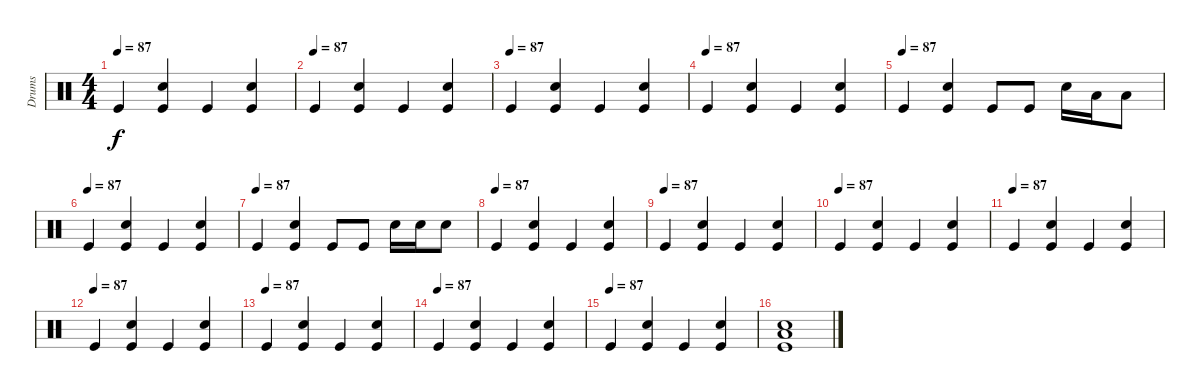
\track ("Drums" "Drums") {instrument percussion}
\staff {score}
\articulation defaults
\ts (4 4)
\tempo 87
\clef neutral
\ks c "Kick (hit)".4{dy f}
("Snare (hit) 2" "Kick (hit)").4 "Kick (hit)".4 ("Snare (hit) 2" "Kick (hit)").4 |
\tempo (87)
"Kick (hit)".4 ("Snare (hit) 2" "Kick (hit)").4 "Kick (hit)".4 ("Snare (hit) 2" "Kick (hit)").4 |
\tempo (87)
"Kick (hit)".4 ("Snare (hit) 2" "Kick (hit)").4 "Kick (hit)".4 ("Snare (hit) 2" "Kick (hit)").4 |
\tempo (87)
"Kick (hit)".4 ("Snare (hit) 2" "Kick (hit)").4 "Kick (hit)".4 ("Snare (hit) 2" "Kick (hit)").4 |
\tempo (87)
"Kick (hit)".4 ("Snare (hit) 2" "Kick (hit)").4 "Kick (hit)".8 "Kick (hit)".8 "Snare (hit) 2".16 "Low Tom (hit)".16 "Low Floor Tom (hit)".8 |
\tempo (87)
"Kick (hit)".4 ("Snare (hit) 2" "Kick (hit)").4 "Kick (hit)".4 ("Snare (hit) 2" "Kick (hit)").4 |
\tempo (87)
"Kick (hit)".4 ("Snare (hit) 2" "Kick (hit)").4 "Kick (hit)".8 "Kick (hit)".8 "Snare (hit) 2".16 "Snare (hit) 2".16 "Snare (hit) 2".8 |
\tempo (87)
"Kick (hit)".4 ("Snare (hit) 2" "Kick (hit)").4 "Kick (hit)".4 ("Snare (hit) 2" "Kick (hit)").4 |
\tempo (87)
"Kick (hit)".4 ("Snare (hit) 2" "Kick (hit)").4 "Kick (hit)".4 ("Snare (hit) 2" "Kick (hit)").4 |
\tempo (87)
"Kick (hit)".4 ("Snare (hit) 2" "Kick (hit)").4 "Kick (hit)".4 ("Snare (hit) 2" "Kick (hit)").4 |
\tempo (87)
"Kick (hit)".4 ("Snare (hit) 2" "Kick (hit)").4 "Kick (hit)".4 ("Snare (hit) 2" "Kick (hit)").4 |
\tempo (87)
"Kick (hit)".4 ("Snare (hit) 2" "Kick (hit)").4 "Kick (hit)".4 ("Snare (hit) 2" "Kick (hit)").4 |
\tempo (87)
"Kick (hit)".4 ("Snare (hit) 2" "Kick (hit)").4 "Kick (hit)".4 ("Snare (hit) 2" "Kick (hit)").4 |
\tempo (87)
"Kick (hit)".4 ("Snare (hit) 2" "Kick (hit)").4 "Kick (hit)".4 ("Snare (hit) 2" "Kick (hit)").4 |
\tempo (87)
"Kick (hit)".4 ("Snare (hit) 2" "Kick (hit)").4 "Kick (hit)".4 ("Snare (hit) 2" "Kick (hit)").4 |
("Low Floor Tom (hit)" "Snare (hit) 2" "Kick (hit)").1
